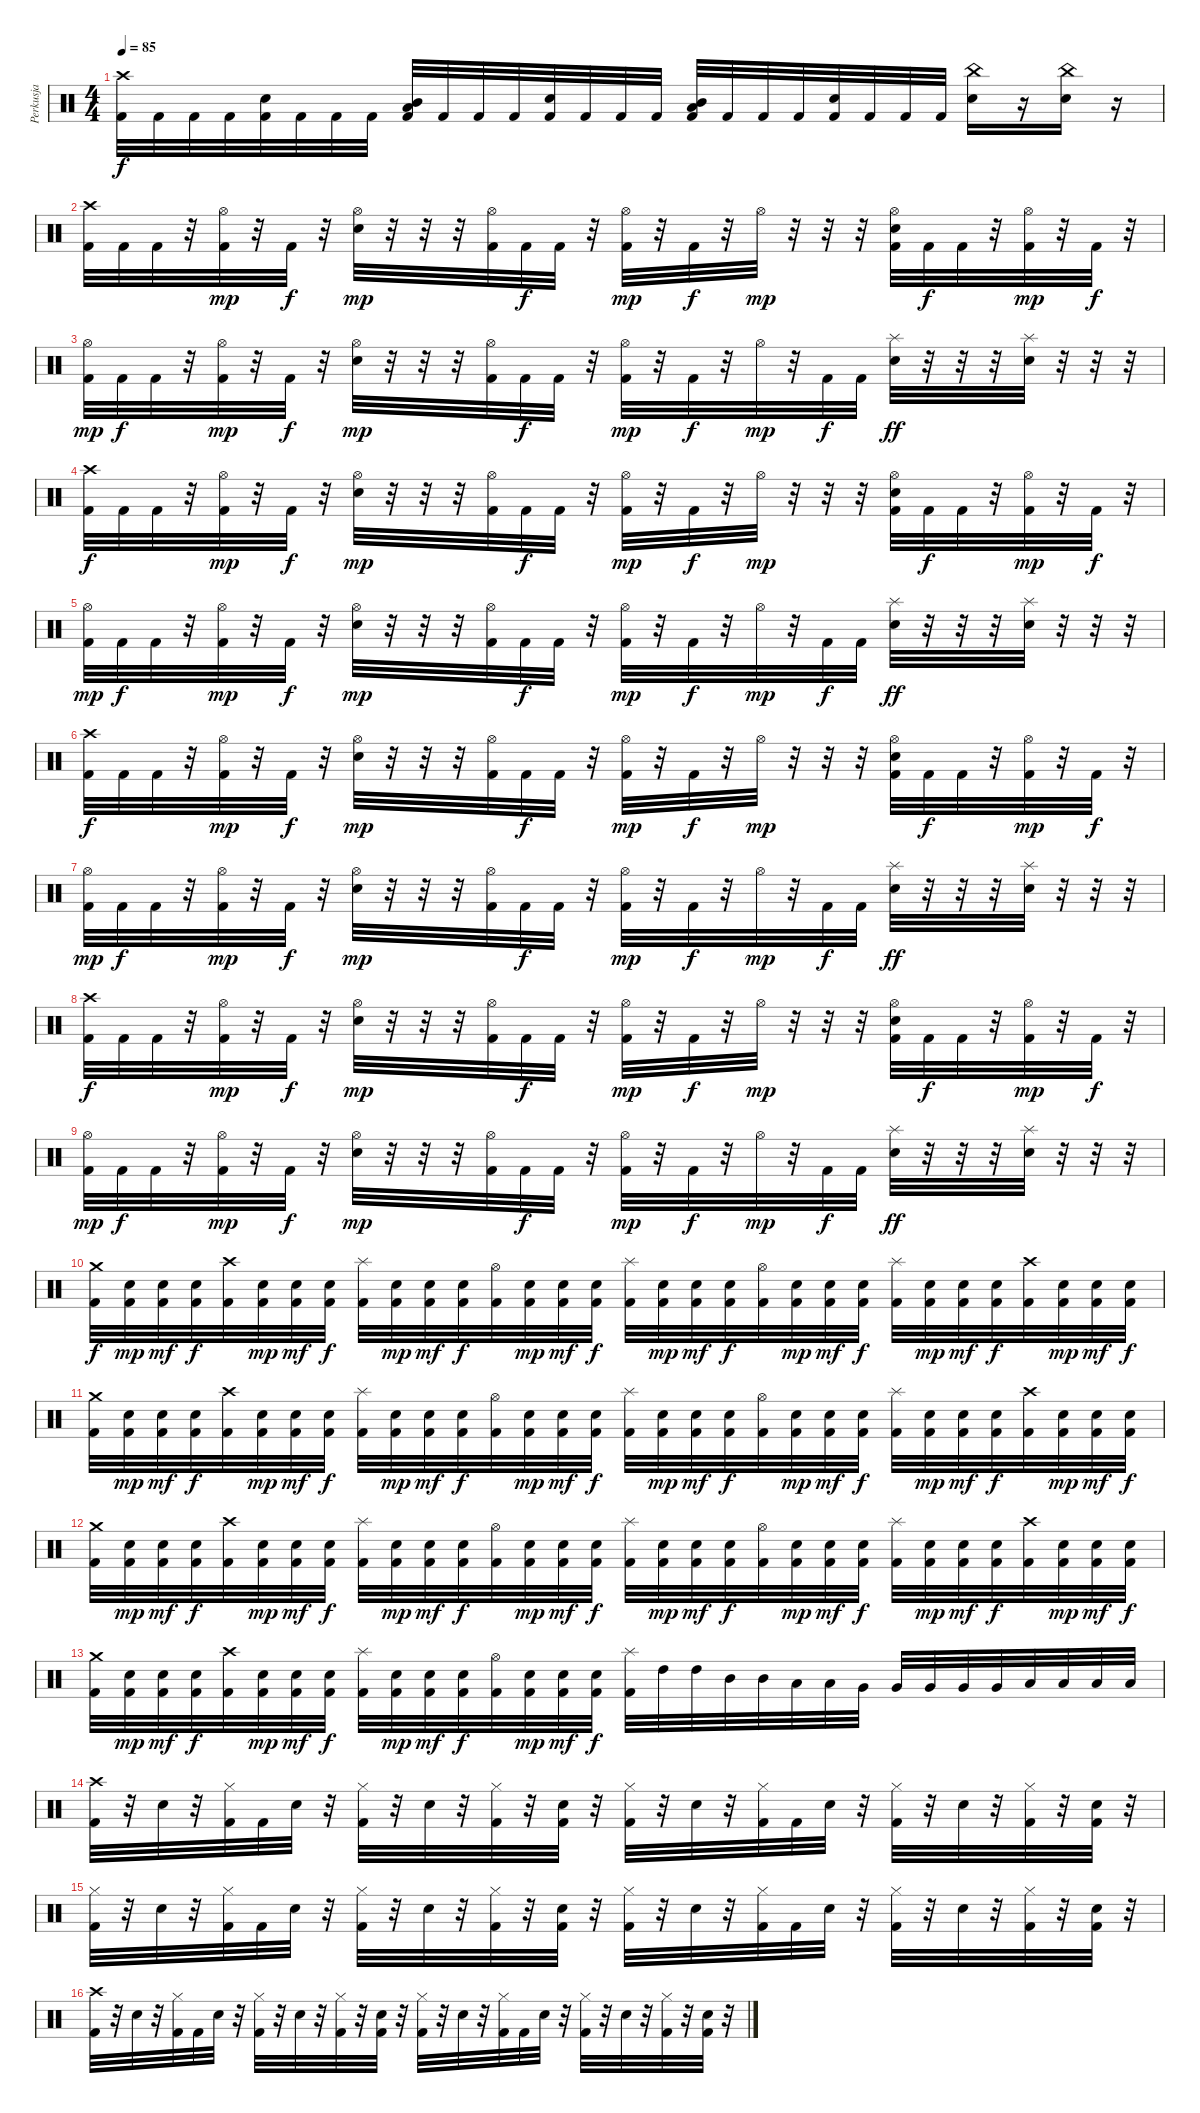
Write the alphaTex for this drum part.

\track ("Perkusja" "Perkusja") {instrument percussion}
\staff {score}
\articulation defaults
\ts (4 4)
\tempo 85
\clef neutral
\ks c
("Crash high (hit)" "Kick (hit) 2").32{dy f} "Kick (hit) 2".32 "Kick (hit) 2".32 "Kick (hit) 2".32 ("Electric Snare (hit)" "Kick (hit) 2").32 "Kick (hit) 2".32 "Kick (hit) 2".32 "Kick (hit) 2".32 ("Mid Tom (hit)" "Low Tom (hit)" "Kick (hit) 2").32 "Kick (hit) 2".32 "Kick (hit) 2".32 "Kick (hit) 2".32 ("Electric Snare (hit)" "Kick (hit) 2").32 "Kick (hit) 2".32 "Kick (hit) 2".32 "Kick (hit) 2".32 ("Mid Tom (hit)" "Low Tom (hit)" "Kick (hit) 2").32 "Kick (hit) 2".32 "Kick (hit) 2".32 "Kick (hit) 2".32 ("Electric Snare (hit)" "Kick (hit) 2").32 "Kick (hit) 2".32 "Kick (hit) 2".32 "Kick (hit) 2".32 ("Electric Snare (hit)" "China (hit)").16 r.16 ("Electric Snare (hit)" "China (hit)").16 r.16 |
("Crash high (hit)" "Kick (hit) 2").32 "Kick (hit) 2".32 "Kick (hit) 2".32 r.32 ("Hi-Hat (open)" "Kick (hit) 2").32{dy mp} r.32 "Kick (hit) 2".32{dy f} r.32 ("Electric Snare (hit)" "Hi-Hat (open)").32{dy mp} r.32 r.32 r.32 ("Hi-Hat (open)" "Kick (hit) 2").32 "Kick (hit) 2".32{dy f} "Kick (hit) 2".32 r.32 ("Hi-Hat (open)" "Kick (hit) 2").32{dy mp} r.32 "Kick (hit) 2".32{dy f} r.32 "Hi-Hat (open)".32{dy mp} r.32 r.32 r.32 ("Electric Snare (hit)" "Hi-Hat (open)" "Kick (hit) 2").32 "Kick (hit) 2".32{dy f} "Kick (hit) 2".32 r.32 ("Hi-Hat (open)" "Kick (hit) 2").32{dy mp} r.32 "Kick (hit) 2".32{dy f} r.32 |
("Hi-Hat (open)" "Kick (hit) 2").32{dy mp} "Kick (hit) 2".32{dy f} "Kick (hit) 2".32 r.32 ("Hi-Hat (open)" "Kick (hit) 2").32{dy mp} r.32 "Kick (hit) 2".32{dy f} r.32 ("Electric Snare (hit)" "Hi-Hat (open)").32{dy mp} r.32 r.32 r.32 ("Hi-Hat (open)" "Kick (hit) 2").32 "Kick (hit) 2".32{dy f} "Kick (hit) 2".32 r.32 ("Hi-Hat (open)" "Kick (hit) 2").32{dy mp} r.32 "Kick (hit) 2".32{dy f} r.32 "Hi-Hat (open)".32{dy mp} r.32 "Kick (hit) 2".32{dy f} "Kick (hit) 2".32 ("Electric Snare (hit)" "Splash (hit)").32{dy ff} r.32 r.32 r.32 ("Electric Snare (hit)" "Splash (hit)").32 r.32 r.32 r.32 |
("Crash high (hit)" "Kick (hit) 2").32{dy f} "Kick (hit) 2".32 "Kick (hit) 2".32 r.32 ("Hi-Hat (open)" "Kick (hit) 2").32{dy mp} r.32 "Kick (hit) 2".32{dy f} r.32 ("Electric Snare (hit)" "Hi-Hat (open)").32{dy mp} r.32 r.32 r.32 ("Hi-Hat (open)" "Kick (hit) 2").32 "Kick (hit) 2".32{dy f} "Kick (hit) 2".32 r.32 ("Hi-Hat (open)" "Kick (hit) 2").32{dy mp} r.32 "Kick (hit) 2".32{dy f} r.32 "Hi-Hat (open)".32{dy mp} r.32 r.32 r.32 ("Electric Snare (hit)" "Hi-Hat (open)" "Kick (hit) 2").32 "Kick (hit) 2".32{dy f} "Kick (hit) 2".32 r.32 ("Hi-Hat (open)" "Kick (hit) 2").32{dy mp} r.32 "Kick (hit) 2".32{dy f} r.32 |
("Hi-Hat (open)" "Kick (hit) 2").32{dy mp} "Kick (hit) 2".32{dy f} "Kick (hit) 2".32 r.32 ("Hi-Hat (open)" "Kick (hit) 2").32{dy mp} r.32 "Kick (hit) 2".32{dy f} r.32 ("Electric Snare (hit)" "Hi-Hat (open)").32{dy mp} r.32 r.32 r.32 ("Hi-Hat (open)" "Kick (hit) 2").32 "Kick (hit) 2".32{dy f} "Kick (hit) 2".32 r.32 ("Hi-Hat (open)" "Kick (hit) 2").32{dy mp} r.32 "Kick (hit) 2".32{dy f} r.32 "Hi-Hat (open)".32{dy mp} r.32 "Kick (hit) 2".32{dy f} "Kick (hit) 2".32 ("Electric Snare (hit)" "Splash (hit)").32{dy ff} r.32 r.32 r.32 ("Electric Snare (hit)" "Splash (hit)").32 r.32 r.32 r.32 |
("Crash high (hit)" "Kick (hit) 2").32{dy f} "Kick (hit) 2".32 "Kick (hit) 2".32 r.32 ("Hi-Hat (open)" "Kick (hit) 2").32{dy mp} r.32 "Kick (hit) 2".32{dy f} r.32 ("Electric Snare (hit)" "Hi-Hat (open)").32{dy mp} r.32 r.32 r.32 ("Hi-Hat (open)" "Kick (hit) 2").32 "Kick (hit) 2".32{dy f} "Kick (hit) 2".32 r.32 ("Hi-Hat (open)" "Kick (hit) 2").32{dy mp} r.32 "Kick (hit) 2".32{dy f} r.32 "Hi-Hat (open)".32{dy mp} r.32 r.32 r.32 ("Electric Snare (hit)" "Hi-Hat (open)" "Kick (hit) 2").32 "Kick (hit) 2".32{dy f} "Kick (hit) 2".32 r.32 ("Hi-Hat (open)" "Kick (hit) 2").32{dy mp} r.32 "Kick (hit) 2".32{dy f} r.32 |
("Hi-Hat (open)" "Kick (hit) 2").32{dy mp} "Kick (hit) 2".32{dy f} "Kick (hit) 2".32 r.32 ("Hi-Hat (open)" "Kick (hit) 2").32{dy mp} r.32 "Kick (hit) 2".32{dy f} r.32 ("Electric Snare (hit)" "Hi-Hat (open)").32{dy mp} r.32 r.32 r.32 ("Hi-Hat (open)" "Kick (hit) 2").32 "Kick (hit) 2".32{dy f} "Kick (hit) 2".32 r.32 ("Hi-Hat (open)" "Kick (hit) 2").32{dy mp} r.32 "Kick (hit) 2".32{dy f} r.32 "Hi-Hat (open)".32{dy mp} r.32 "Kick (hit) 2".32{dy f} "Kick (hit) 2".32 ("Electric Snare (hit)" "Splash (hit)").32{dy ff} r.32 r.32 r.32 ("Electric Snare (hit)" "Splash (hit)").32 r.32 r.32 r.32 |
("Crash high (hit)" "Kick (hit) 2").32{dy f} "Kick (hit) 2".32 "Kick (hit) 2".32 r.32 ("Hi-Hat (open)" "Kick (hit) 2").32{dy mp} r.32 "Kick (hit) 2".32{dy f} r.32 ("Electric Snare (hit)" "Hi-Hat (open)").32{dy mp} r.32 r.32 r.32 ("Hi-Hat (open)" "Kick (hit) 2").32 "Kick (hit) 2".32{dy f} "Kick (hit) 2".32 r.32 ("Hi-Hat (open)" "Kick (hit) 2").32{dy mp} r.32 "Kick (hit) 2".32{dy f} r.32 "Hi-Hat (open)".32{dy mp} r.32 r.32 r.32 ("Electric Snare (hit)" "Hi-Hat (open)" "Kick (hit) 2").32 "Kick (hit) 2".32{dy f} "Kick (hit) 2".32 r.32 ("Hi-Hat (open)" "Kick (hit) 2").32{dy mp} r.32 "Kick (hit) 2".32{dy f} r.32 |
("Hi-Hat (open)" "Kick (hit) 2").32{dy mp} "Kick (hit) 2".32{dy f} "Kick (hit) 2".32 r.32 ("Hi-Hat (open)" "Kick (hit) 2").32{dy mp} r.32 "Kick (hit) 2".32{dy f} r.32 ("Electric Snare (hit)" "Hi-Hat (open)").32{dy mp} r.32 r.32 r.32 ("Hi-Hat (open)" "Kick (hit) 2").32 "Kick (hit) 2".32{dy f} "Kick (hit) 2".32 r.32 ("Hi-Hat (open)" "Kick (hit) 2").32{dy mp} r.32 "Kick (hit) 2".32{dy f} r.32 "Hi-Hat (open)".32{dy mp} r.32 "Kick (hit) 2".32{dy f} "Kick (hit) 2".32 ("Electric Snare (hit)" "Splash (hit)").32{dy ff} r.32 r.32 r.32 ("Electric Snare (hit)" "Splash (hit)").32 r.32 r.32 r.32 |
("Crash medium (hit)" "Kick (hit) 2").32{dy f} ("Electric Snare (hit)" "Kick (hit) 2").32{dy mp} ("Electric Snare (hit)" "Kick (hit) 2").32{dy mf} ("Electric Snare (hit)" "Kick (hit) 2").32{dy f} ("Crash high (hit)" "Kick (hit) 2").32 ("Electric Snare (hit)" "Kick (hit) 2").32{dy mp} ("Electric Snare (hit)" "Kick (hit) 2").32{dy mf} ("Electric Snare (hit)" "Kick (hit) 2").32{dy f} ("Splash (hit)" "Kick (hit) 2").32 ("Electric Snare (hit)" "Kick (hit) 2").32{dy mp} ("Electric Snare (hit)" "Kick (hit) 2").32{dy mf} ("Electric Snare (hit)" "Kick (hit) 2").32{dy f} ("Hi-Hat (open)" "Kick (hit) 2").32 ("Electric Snare (hit)" "Kick (hit) 2").32{dy mp} ("Electric Snare (hit)" "Kick (hit) 2").32{dy mf} ("Electric Snare (hit)" "Kick (hit) 2").32{dy f} ("Splash (hit)" "Kick (hit) 2").32 ("Electric Snare (hit)" "Kick (hit) 2").32{dy mp} ("Electric Snare (hit)" "Kick (hit) 2").32{dy mf} ("Electric Snare (hit)" "Kick (hit) 2").32{dy f} ("Hi-Hat (open)" "Kick (hit) 2").32 ("Electric Snare (hit)" "Kick (hit) 2").32{dy mp} ("Electric Snare (hit)" "Kick (hit) 2").32{dy mf} ("Electric Snare (hit)" "Kick (hit) 2").32{dy f} ("Splash (hit)" "Kick (hit) 2").32 ("Electric Snare (hit)" "Kick (hit) 2").32{dy mp} ("Electric Snare (hit)" "Kick (hit) 2").32{dy mf} ("Electric Snare (hit)" "Kick (hit) 2").32{dy f} ("Crash high (hit)" "Kick (hit) 2").32 ("Electric Snare (hit)" "Kick (hit) 2").32{dy mp} ("Electric Snare (hit)" "Kick (hit) 2").32{dy mf} ("Electric Snare (hit)" "Kick (hit) 2").32{dy f} |
("Crash medium (hit)" "Kick (hit) 2").32 ("Electric Snare (hit)" "Kick (hit) 2").32{dy mp} ("Electric Snare (hit)" "Kick (hit) 2").32{dy mf} ("Electric Snare (hit)" "Kick (hit) 2").32{dy f} ("Crash high (hit)" "Kick (hit) 2").32 ("Electric Snare (hit)" "Kick (hit) 2").32{dy mp} ("Electric Snare (hit)" "Kick (hit) 2").32{dy mf} ("Electric Snare (hit)" "Kick (hit) 2").32{dy f} ("Splash (hit)" "Kick (hit) 2").32 ("Electric Snare (hit)" "Kick (hit) 2").32{dy mp} ("Electric Snare (hit)" "Kick (hit) 2").32{dy mf} ("Electric Snare (hit)" "Kick (hit) 2").32{dy f} ("Hi-Hat (open)" "Kick (hit) 2").32 ("Electric Snare (hit)" "Kick (hit) 2").32{dy mp} ("Electric Snare (hit)" "Kick (hit) 2").32{dy mf} ("Electric Snare (hit)" "Kick (hit) 2").32{dy f} ("Splash (hit)" "Kick (hit) 2").32 ("Electric Snare (hit)" "Kick (hit) 2").32{dy mp} ("Electric Snare (hit)" "Kick (hit) 2").32{dy mf} ("Electric Snare (hit)" "Kick (hit) 2").32{dy f} ("Hi-Hat (open)" "Kick (hit) 2").32 ("Electric Snare (hit)" "Kick (hit) 2").32{dy mp} ("Electric Snare (hit)" "Kick (hit) 2").32{dy mf} ("Electric Snare (hit)" "Kick (hit) 2").32{dy f} ("Splash (hit)" "Kick (hit) 2").32 ("Electric Snare (hit)" "Kick (hit) 2").32{dy mp} ("Electric Snare (hit)" "Kick (hit) 2").32{dy mf} ("Electric Snare (hit)" "Kick (hit) 2").32{dy f} ("Crash high (hit)" "Kick (hit) 2").32 ("Electric Snare (hit)" "Kick (hit) 2").32{dy mp} ("Electric Snare (hit)" "Kick (hit) 2").32{dy mf} ("Electric Snare (hit)" "Kick (hit) 2").32{dy f} |
("Crash medium (hit)" "Kick (hit) 2").32 ("Electric Snare (hit)" "Kick (hit) 2").32{dy mp} ("Electric Snare (hit)" "Kick (hit) 2").32{dy mf} ("Electric Snare (hit)" "Kick (hit) 2").32{dy f} ("Crash high (hit)" "Kick (hit) 2").32 ("Electric Snare (hit)" "Kick (hit) 2").32{dy mp} ("Electric Snare (hit)" "Kick (hit) 2").32{dy mf} ("Electric Snare (hit)" "Kick (hit) 2").32{dy f} ("Splash (hit)" "Kick (hit) 2").32 ("Electric Snare (hit)" "Kick (hit) 2").32{dy mp} ("Electric Snare (hit)" "Kick (hit) 2").32{dy mf} ("Electric Snare (hit)" "Kick (hit) 2").32{dy f} ("Hi-Hat (open)" "Kick (hit) 2").32 ("Electric Snare (hit)" "Kick (hit) 2").32{dy mp} ("Electric Snare (hit)" "Kick (hit) 2").32{dy mf} ("Electric Snare (hit)" "Kick (hit) 2").32{dy f} ("Splash (hit)" "Kick (hit) 2").32 ("Electric Snare (hit)" "Kick (hit) 2").32{dy mp} ("Electric Snare (hit)" "Kick (hit) 2").32{dy mf} ("Electric Snare (hit)" "Kick (hit) 2").32{dy f} ("Hi-Hat (open)" "Kick (hit) 2").32 ("Electric Snare (hit)" "Kick (hit) 2").32{dy mp} ("Electric Snare (hit)" "Kick (hit) 2").32{dy mf} ("Electric Snare (hit)" "Kick (hit) 2").32{dy f} ("Splash (hit)" "Kick (hit) 2").32 ("Electric Snare (hit)" "Kick (hit) 2").32{dy mp} ("Electric Snare (hit)" "Kick (hit) 2").32{dy mf} ("Electric Snare (hit)" "Kick (hit) 2").32{dy f} ("Crash high (hit)" "Kick (hit) 2").32 ("Electric Snare (hit)" "Kick (hit) 2").32{dy mp} ("Electric Snare (hit)" "Kick (hit) 2").32{dy mf} ("Electric Snare (hit)" "Kick (hit) 2").32{dy f} |
("Crash medium (hit)" "Kick (hit) 2").32 ("Electric Snare (hit)" "Kick (hit) 2").32{dy mp} ("Electric Snare (hit)" "Kick (hit) 2").32{dy mf} ("Electric Snare (hit)" "Kick (hit) 2").32{dy f} ("Crash high (hit)" "Kick (hit) 2").32 ("Electric Snare (hit)" "Kick (hit) 2").32{dy mp} ("Electric Snare (hit)" "Kick (hit) 2").32{dy mf} ("Electric Snare (hit)" "Kick (hit) 2").32{dy f} ("Splash (hit)" "Kick (hit) 2").32 ("Electric Snare (hit)" "Kick (hit) 2").32{dy mp} ("Electric Snare (hit)" "Kick (hit) 2").32{dy mf} ("Electric Snare (hit)" "Kick (hit) 2").32{dy f} ("Hi-Hat (open)" "Kick (hit) 2").32 ("Electric Snare (hit)" "Kick (hit) 2").32{dy mp} ("Electric Snare (hit)" "Kick (hit) 2").32{dy mf} ("Electric Snare (hit)" "Kick (hit) 2").32{dy f} ("Splash (hit)" "Kick (hit) 2").32 "High Tom (hit)".32 "High Tom (hit)".32 "Mid Tom (hit)".32 "Mid Tom (hit)".32 "Low Tom (hit)".32 "Low Tom (hit)".32 "Very Low Tom (hit)".32 "Very Low Tom (hit)".32 "Very Low Tom (hit)".32 "Very Low Tom (hit)".32 "Very Low Tom (hit)".32 "Low Floor Tom (hit)".32 "Low Floor Tom (hit)".32 "Low Floor Tom (hit)".32 "Low Floor Tom (hit)".32 |
("Crash high (hit)" "Kick (hit) 2").32 r.32 "Electric Snare (hit)".32 r.32 ("Hi-Hat (closed)" "Kick (hit) 2").32 "Kick (hit) 2".32 "Electric Snare (hit)".32 r.32 ("Hi-Hat (closed)" "Kick (hit) 2").32 r.32 "Electric Snare (hit)".32 r.32 ("Hi-Hat (closed)" "Kick (hit) 2").32 r.32 ("Electric Snare (hit)" "Kick (hit) 2").32 r.32 ("Hi-Hat (closed)" "Kick (hit) 2").32 r.32 "Electric Snare (hit)".32 r.32 ("Hi-Hat (closed)" "Kick (hit) 2").32 "Kick (hit) 2".32 "Electric Snare (hit)".32 r.32 ("Hi-Hat (closed)" "Kick (hit) 2").32 r.32 "Electric Snare (hit)".32 r.32 ("Hi-Hat (closed)" "Kick (hit) 2").32 r.32 ("Electric Snare (hit)" "Kick (hit) 2").32 r.32 |
("Hi-Hat (closed)" "Kick (hit) 2").32 r.32 "Electric Snare (hit)".32 r.32 ("Hi-Hat (closed)" "Kick (hit) 2").32 "Kick (hit) 2".32 "Electric Snare (hit)".32 r.32 ("Hi-Hat (closed)" "Kick (hit) 2").32 r.32 "Electric Snare (hit)".32 r.32 ("Hi-Hat (closed)" "Kick (hit) 2").32 r.32 ("Electric Snare (hit)" "Kick (hit) 2").32 r.32 ("Hi-Hat (closed)" "Kick (hit) 2").32 r.32 "Electric Snare (hit)".32 r.32 ("Hi-Hat (closed)" "Kick (hit) 2").32 "Kick (hit) 2".32 "Electric Snare (hit)".32 r.32 ("Hi-Hat (closed)" "Kick (hit) 2").32 r.32 "Electric Snare (hit)".32 r.32 ("Hi-Hat (closed)" "Kick (hit) 2").32 r.32 ("Electric Snare (hit)" "Kick (hit) 2").32 r.32 |
("Crash high (hit)" "Kick (hit) 2").32 r.32 "Electric Snare (hit)".32 r.32 ("Hi-Hat (closed)" "Kick (hit) 2").32 "Kick (hit) 2".32 "Electric Snare (hit)".32 r.32 ("Hi-Hat (closed)" "Kick (hit) 2").32 r.32 "Electric Snare (hit)".32 r.32 ("Hi-Hat (closed)" "Kick (hit) 2").32 r.32 ("Electric Snare (hit)" "Kick (hit) 2").32 r.32 ("Hi-Hat (closed)" "Kick (hit) 2").32 r.32 "Electric Snare (hit)".32 r.32 ("Hi-Hat (closed)" "Kick (hit) 2").32 "Kick (hit) 2".32 "Electric Snare (hit)".32 r.32 ("Hi-Hat (closed)" "Kick (hit) 2").32 r.32 "Electric Snare (hit)".32 r.32 ("Hi-Hat (closed)" "Kick (hit) 2").32 r.32 ("Electric Snare (hit)" "Kick (hit) 2").32 r.32
